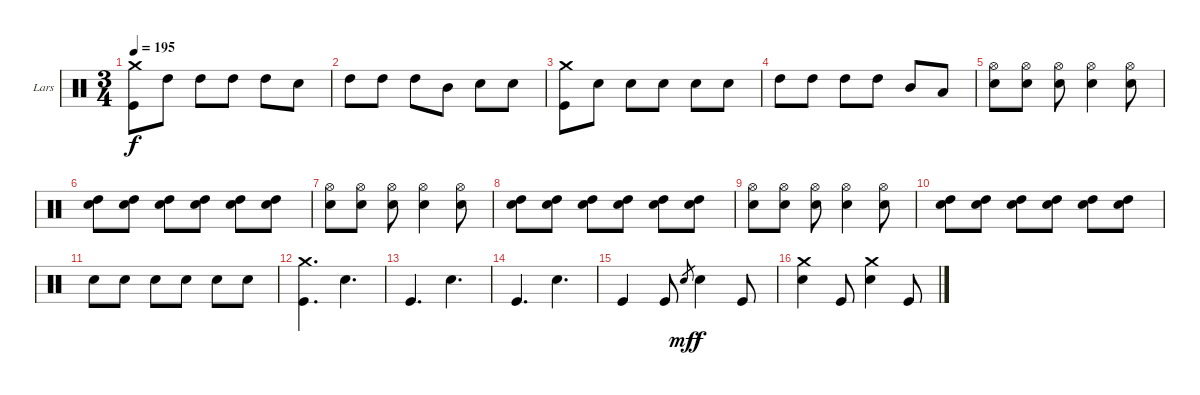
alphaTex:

\bracketExtendMode groupsimilarinstruments
\firstSystemTrackNameOrientation horizontal
\otherSystemsTrackNameOrientation horizontal
\track ("Drumkit" "Lars") {instrument percussion}
\staff {score}
\articulation defaults
\ts (3 4)
\tempo 195
\clef neutral
\ks c
("Crash medium (hit)" "Kick (hit)").8{dy f} "High Tom (hit)".8 "High Tom (hit)".8 "High Tom (hit)".8 "High Tom (hit)".8 "Snare (hit) 2".8 |
"High Tom (hit)".8 "High Tom (hit)".8 "High Tom (hit)".8 "Mid Tom (hit)".8 "Snare (hit) 2".8 "Snare (hit) 2".8 |
("Crash medium (hit)" "Kick (hit)").8 "Snare (hit) 2".8 "Snare (hit) 2".8 "Snare (hit) 2".8 "Snare (hit) 2".8 "Snare (hit) 2".8 |
"High Tom (hit)".8 "High Tom (hit)".8 "High Tom (hit)".8 "High Tom (hit)".8 "Mid Tom (hit)".8 "Low Tom (hit)".8 |
("Hi-Hat (open)" "Snare (hit) 2").8 ("Hi-Hat (open)" "Snare (hit) 2").8 ("Hi-Hat (open)" "Snare (hit) 2").8 ("Hi-Hat (open)" "Snare (hit) 2").4 ("Hi-Hat (open)" "Snare (hit) 2").8 |
("Snare (hit) 2" "High Tom (hit)").8 ("Snare (hit) 2" "High Tom (hit)").8 ("Snare (hit) 2" "High Tom (hit)").8 ("Snare (hit) 2" "High Tom (hit)").8 ("Snare (hit) 2" "High Tom (hit)").8 ("Snare (hit) 2" "High Tom (hit)").8 |
("Hi-Hat (open)" "Snare (hit) 2").8 ("Hi-Hat (open)" "Snare (hit) 2").8 ("Hi-Hat (open)" "Snare (hit) 2").8 ("Hi-Hat (open)" "Snare (hit) 2").4 ("Hi-Hat (open)" "Snare (hit) 2").8 |
("Snare (hit) 2" "High Tom (hit)").8 ("Snare (hit) 2" "High Tom (hit)").8 ("Snare (hit) 2" "High Tom (hit)").8 ("Snare (hit) 2" "High Tom (hit)").8 ("Snare (hit) 2" "High Tom (hit)").8 ("Snare (hit) 2" "High Tom (hit)").8 |
("Hi-Hat (open)" "Snare (hit) 2").8 ("Hi-Hat (open)" "Snare (hit) 2").8 ("Hi-Hat (open)" "Snare (hit) 2").8 ("Hi-Hat (open)" "Snare (hit) 2").4 ("Hi-Hat (open)" "Snare (hit) 2").8 |
("Snare (hit) 2" "High Tom (hit)").8 ("Snare (hit) 2" "High Tom (hit)").8 ("Snare (hit) 2" "High Tom (hit)").8 ("Snare (hit) 2" "High Tom (hit)").8 ("Snare (hit) 2" "High Tom (hit)").8 ("Snare (hit) 2" "High Tom (hit)").8 |
"Snare (hit) 2".8 "Snare (hit) 2".8 "Snare (hit) 2".8 "Snare (hit) 2".8 "Snare (hit) 2".8 "Snare (hit) 2".8 |
("Crash medium (hit)" "Kick (hit)").4{d} "Snare (hit) 2".4{d} |
"Kick (hit)".4{d} "Snare (hit) 2".4{d} |
"Kick (hit)".4{d} "Snare (hit) 2".4{d} |
"Kick (hit)".4 "Kick (hit)".8 "Snare (hit) 2".8{gr dy mf} "Snare (hit) 2".4{dy f} "Kick (hit)".8 |
("Crash medium (hit)" "Snare (hit) 2").4 "Kick (hit)".8 ("Crash medium (hit)" "Snare (hit) 2").4 "Kick (hit)".8
